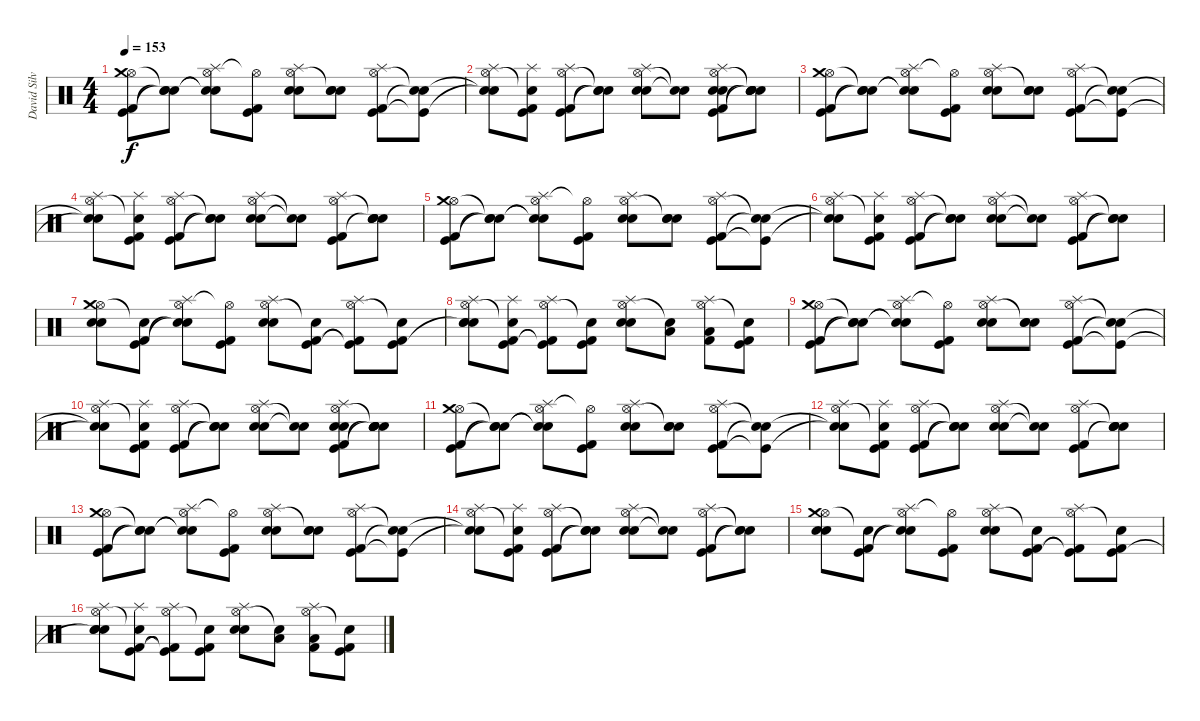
\track ("David Silveria" "David Silv") {instrument percussion}
\staff {score}
\articulation defaults
\ts (4 4)
\tempo 153
\clef neutral
\ks c
("Hi-Hat (open)" "Kick (hit) 2" "Kick (hit)" "Crash medium (hit)").8{dy f} ("Snare (hit)"{t} "Snare (hit)"{t} "Snare (hit)"{t}).8 ("Hi-Hat (open)" "Snare (hit)"{t} "Snare (hit)"{t} "Splash (hit)").8 ("Hi-Hat (open)"{t} "Kick (hit)" "Kick (hit) 2").8 ("Hi-Hat (open)" "Electric Snare (hit)" "Splash (hit)" "Snare (hit) 2").8 ("Snare (hit)"{t} "Electric Snare (hit)" "Snare (hit) 2").8 ("Hi-Hat (open)" "Kick (hit)" "Kick (hit) 2" "Splash (hit)").8 ("Snare (hit)"{t} "Kick (hit)"{t} "Snare (hit)"{t}).8 |
("Hi-Hat (open)" "Snare (hit)"{t} "Snare (hit)"{t} "Splash (hit)").8 ("Snare (hit)"{t} "Kick (hit) 2" "Kick (hit)" "Splash (hit)").8 ("Hi-Hat (open)" "Kick (hit)" "Kick (hit) 2" "Splash (hit)").8 ("Snare (hit)"{t} "Snare (hit)"{t} "Snare (hit)"{t}).8 ("Hi-Hat (open)" "Electric Snare (hit)" "Splash (hit)" "Snare (hit) 2").8 ("Snare (hit)"{t} "Snare (hit)"{t}).8 ("Hi-Hat (open)" "Kick (hit)" "Kick (hit) 2" "Splash (hit)" "Electric Snare (hit)" "Snare (hit) 2").8 ("Snare (hit)"{t} "Snare (hit)"{t} "Snare (hit)"{t} "Electric Snare (hit)" "Snare (hit) 2").8 |
("Hi-Hat (open)" "Kick (hit) 2" "Kick (hit)" "Crash medium (hit)").8 ("Snare (hit)"{t} "Snare (hit)"{t} "Snare (hit)"{t}).8 ("Hi-Hat (open)" "Snare (hit)"{t} "Snare (hit)"{t} "Splash (hit)").8 ("Hi-Hat (open)"{t} "Kick (hit)" "Kick (hit) 2").8 ("Hi-Hat (open)" "Electric Snare (hit)" "Splash (hit)" "Snare (hit) 2").8 ("Snare (hit)"{t} "Electric Snare (hit)" "Snare (hit) 2").8 ("Hi-Hat (open)" "Kick (hit)" "Kick (hit) 2" "Splash (hit)").8 ("Snare (hit)"{t} "Kick (hit)"{t} "Snare (hit)"{t}).8 |
("Hi-Hat (open)" "Snare (hit)"{t} "Snare (hit)"{t} "Splash (hit)").8 ("Snare (hit)"{t} "Kick (hit) 2" "Kick (hit)" "Splash (hit)").8 ("Hi-Hat (open)" "Kick (hit)" "Kick (hit) 2" "Splash (hit)").8 ("Snare (hit)"{t} "Snare (hit)"{t} "Snare (hit)"{t}).8 ("Hi-Hat (open)" "Electric Snare (hit)" "Splash (hit)" "Snare (hit) 2").8 ("Snare (hit)"{t} "Snare (hit)"{t}).8 ("Hi-Hat (open)" "Kick (hit)" "Kick (hit) 2" "Splash (hit)").8 ("Snare (hit)"{t} "Electric Snare (hit)" "Snare (hit)"{t} "Snare (hit) 2").8 |
("Hi-Hat (open)" "Kick (hit) 2" "Kick (hit)" "Crash medium (hit)").8 ("Snare (hit)"{t} "Snare (hit)"{t} "Snare (hit)"{t}).8 ("Hi-Hat (open)" "Snare (hit)"{t} "Snare (hit)"{t} "Splash (hit)").8 ("Hi-Hat (open)"{t} "Kick (hit)" "Kick (hit) 2").8 ("Hi-Hat (open)" "Electric Snare (hit)" "Splash (hit)" "Snare (hit) 2").8 ("Snare (hit)"{t} "Electric Snare (hit)" "Snare (hit) 2").8 ("Hi-Hat (open)" "Kick (hit)" "Kick (hit) 2" "Splash (hit)").8 ("Snare (hit)"{t} "Kick (hit)"{t} "Snare (hit)"{t}).8 |
("Hi-Hat (open)" "Snare (hit)"{t} "Snare (hit)"{t} "Splash (hit)").8 ("Snare (hit)"{t} "Kick (hit) 2" "Kick (hit)" "Splash (hit)").8 ("Hi-Hat (open)" "Kick (hit)" "Kick (hit) 2" "Splash (hit)").8 ("Snare (hit)"{t} "Snare (hit)"{t} "Snare (hit)"{t}).8 ("Hi-Hat (open)" "Electric Snare (hit)" "Splash (hit)" "Snare (hit) 2").8 ("Snare (hit)"{t} "Snare (hit)"{t}).8 ("Hi-Hat (open)" "Kick (hit)" "Kick (hit) 2" "Splash (hit)").8 ("Snare (hit)"{t} "Snare (hit)"{t} "Snare (hit)"{t}).8 |
("Hi-Hat (open)" "Electric Snare (hit)" "Crash medium (hit)" "Snare (hit) 2").8 ("Snare (hit)"{t} "Kick (hit)" "Kick (hit) 2").8 ("Hi-Hat (open)" "Snare (hit)"{t} "Snare (hit)"{t} "Splash (hit)").8 ("Hi-Hat (open)"{t} "Kick (hit)" "Kick (hit) 2").8 ("Hi-Hat (open)" "Electric Snare (hit)" "Splash (hit)" "Snare (hit) 2").8 ("Snare (hit)"{t} "Kick (hit) 2" "Kick (hit)").8 ("Hi-Hat (open)" "Kick (hit)"{t} "Kick (hit) 2"{t} "Splash (hit)").8 ("Snare (hit)"{t} "Kick (hit) 2" "Kick (hit)").8 |
("Hi-Hat (open)" "Electric Snare (hit)" "Snare (hit)"{t} "Splash (hit)" "Snare (hit) 2").8 ("Snare (hit)"{t} "Kick (hit) 2" "Kick (hit)" "Splash (hit)").8 ("Hi-Hat (open)" "Kick (hit)"{t} "Kick (hit) 2"{t} "Splash (hit)").8 ("Snare (hit)"{t} "Kick (hit) 2" "Kick (hit)").8 ("Hi-Hat (open)" "Electric Snare (hit)" "Splash (hit)" "Snare (hit) 2").8 ("Snare (hit)"{t} "Low Tom (hit)").8 ("Hi-Hat (open)" "Low Floor Tom (hit)" "Kick (hit) 2" "Splash (hit)").8 ("Snare (hit)"{t} "Kick (hit) 2" "Kick (hit)").8 |
("Hi-Hat (open)" "Kick (hit) 2" "Kick (hit)" "Crash medium (hit)").8 ("Snare (hit)"{t} "Snare (hit)"{t} "Snare (hit)"{t}).8 ("Hi-Hat (open)" "Snare (hit)"{t} "Snare (hit)"{t} "Splash (hit)").8 ("Hi-Hat (open)"{t} "Kick (hit)" "Kick (hit) 2").8 ("Hi-Hat (open)" "Electric Snare (hit)" "Splash (hit)" "Snare (hit) 2").8 ("Snare (hit)"{t} "Electric Snare (hit)" "Snare (hit) 2").8 ("Hi-Hat (open)" "Kick (hit)" "Kick (hit) 2" "Splash (hit)").8 ("Snare (hit)"{t} "Kick (hit)"{t} "Snare (hit)"{t}).8 |
("Hi-Hat (open)" "Snare (hit)"{t} "Snare (hit)"{t} "Splash (hit)").8 ("Snare (hit)"{t} "Kick (hit) 2" "Kick (hit)" "Splash (hit)").8 ("Hi-Hat (open)" "Kick (hit)" "Kick (hit) 2" "Splash (hit)").8 ("Snare (hit)"{t} "Snare (hit)"{t} "Snare (hit)"{t}).8 ("Hi-Hat (open)" "Electric Snare (hit)" "Splash (hit)" "Snare (hit) 2").8 ("Snare (hit)"{t} "Snare (hit)"{t}).8 ("Hi-Hat (open)" "Kick (hit)" "Kick (hit) 2" "Splash (hit)" "Electric Snare (hit)" "Snare (hit) 2").8 ("Snare (hit)"{t} "Snare (hit)"{t} "Snare (hit)"{t} "Electric Snare (hit)" "Snare (hit) 2").8 |
("Hi-Hat (open)" "Kick (hit) 2" "Kick (hit)" "Crash medium (hit)").8 ("Snare (hit)"{t} "Snare (hit)"{t} "Snare (hit)"{t}).8 ("Hi-Hat (open)" "Snare (hit)"{t} "Snare (hit)"{t} "Splash (hit)").8 ("Hi-Hat (open)"{t} "Kick (hit)" "Kick (hit) 2").8 ("Hi-Hat (open)" "Electric Snare (hit)" "Splash (hit)" "Snare (hit) 2").8 ("Snare (hit)"{t} "Electric Snare (hit)" "Snare (hit) 2").8 ("Hi-Hat (open)" "Kick (hit)" "Kick (hit) 2" "Splash (hit)").8 ("Snare (hit)"{t} "Kick (hit)"{t} "Snare (hit)"{t}).8 |
("Hi-Hat (open)" "Snare (hit)"{t} "Snare (hit)"{t} "Splash (hit)").8 ("Snare (hit)"{t} "Kick (hit) 2" "Kick (hit)" "Splash (hit)").8 ("Hi-Hat (open)" "Kick (hit)" "Kick (hit) 2" "Splash (hit)").8 ("Snare (hit)"{t} "Snare (hit)"{t} "Snare (hit)"{t}).8 ("Hi-Hat (open)" "Electric Snare (hit)" "Splash (hit)" "Snare (hit) 2").8 ("Snare (hit)"{t} "Snare (hit)"{t}).8 ("Hi-Hat (open)" "Kick (hit)" "Kick (hit) 2" "Splash (hit)").8 ("Snare (hit)"{t} "Electric Snare (hit)" "Snare (hit)"{t} "Snare (hit) 2").8 |
("Hi-Hat (open)" "Kick (hit) 2" "Kick (hit)" "Crash medium (hit)").8 ("Snare (hit)"{t} "Snare (hit)"{t} "Snare (hit)"{t}).8 ("Hi-Hat (open)" "Snare (hit)"{t} "Snare (hit)"{t} "Splash (hit)").8 ("Hi-Hat (open)"{t} "Kick (hit)" "Kick (hit) 2").8 ("Hi-Hat (open)" "Electric Snare (hit)" "Splash (hit)" "Snare (hit) 2").8 ("Snare (hit)"{t} "Electric Snare (hit)" "Snare (hit) 2").8 ("Hi-Hat (open)" "Kick (hit)" "Kick (hit) 2" "Splash (hit)").8 ("Snare (hit)"{t} "Kick (hit)"{t} "Snare (hit)"{t}).8 |
("Hi-Hat (open)" "Snare (hit)"{t} "Snare (hit)"{t} "Splash (hit)").8 ("Snare (hit)"{t} "Kick (hit) 2" "Kick (hit)" "Splash (hit)").8 ("Hi-Hat (open)" "Kick (hit)" "Kick (hit) 2" "Splash (hit)").8 ("Snare (hit)"{t} "Snare (hit)"{t} "Snare (hit)"{t}).8 ("Hi-Hat (open)" "Electric Snare (hit)" "Splash (hit)" "Snare (hit) 2").8 ("Snare (hit)"{t} "Snare (hit)"{t}).8 ("Hi-Hat (open)" "Kick (hit)" "Kick (hit) 2" "Splash (hit)").8 ("Snare (hit)"{t} "Snare (hit)"{t} "Snare (hit)"{t}).8 |
("Hi-Hat (open)" "Electric Snare (hit)" "Crash medium (hit)" "Snare (hit) 2").8 ("Snare (hit)"{t} "Kick (hit)" "Kick (hit) 2").8 ("Hi-Hat (open)" "Snare (hit)"{t} "Snare (hit)"{t} "Splash (hit)").8 ("Hi-Hat (open)"{t} "Kick (hit)" "Kick (hit) 2").8 ("Hi-Hat (open)" "Electric Snare (hit)" "Splash (hit)" "Snare (hit) 2").8 ("Snare (hit)"{t} "Kick (hit) 2" "Kick (hit)").8 ("Hi-Hat (open)" "Kick (hit)"{t} "Kick (hit) 2"{t} "Splash (hit)").8 ("Snare (hit)"{t} "Kick (hit) 2" "Kick (hit)").8 |
("Hi-Hat (open)" "Electric Snare (hit)" "Snare (hit)"{t} "Splash (hit)" "Snare (hit) 2").8 ("Snare (hit)"{t} "Kick (hit) 2" "Kick (hit)" "Splash (hit)").8 ("Hi-Hat (open)" "Kick (hit)"{t} "Kick (hit) 2"{t} "Splash (hit)").8 ("Snare (hit)"{t} "Kick (hit) 2" "Kick (hit)").8 ("Hi-Hat (open)" "Electric Snare (hit)" "Splash (hit)" "Snare (hit) 2").8 ("Snare (hit)"{t} "Low Tom (hit)").8 ("Hi-Hat (open)" "Low Floor Tom (hit)" "Kick (hit) 2" "Splash (hit)").8 ("Snare (hit)"{t} "Kick (hit) 2" "Kick (hit)").8
